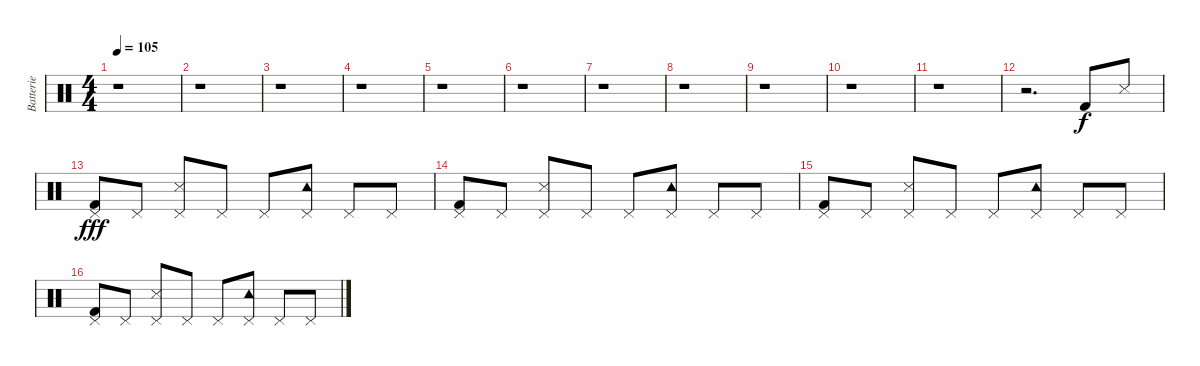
\track ("Batterie" "Batterie") {instrument percussion}
\staff {score}
\articulation defaults
\ts (4 4)
\tempo 105
\clef neutral
\ks c
r.1{dy f} |
r.1 |
r.1 |
r.1 |
r.1 |
r.1 |
r.1 |
r.1 |
r.1 |
r.1 |
r.1 |
r.2{d} "Kick (hit) 2".8 "Snare (side stick) 3".8 |
("Pedal Hi-Hat (hit)" "Kick (hit) 2").8{dy fff} "Pedal Hi-Hat (hit)".8 ("Pedal Hi-Hat (hit)" "Snare (side stick) 3").8 "Pedal Hi-Hat (hit)".8 "Pedal Hi-Hat (hit)".8 ("Pedal Hi-Hat (hit)" "Tambourine (hit)").8 "Pedal Hi-Hat (hit)".8 "Pedal Hi-Hat (hit)".8 |
("Pedal Hi-Hat (hit)" "Kick (hit) 2").8 "Pedal Hi-Hat (hit)".8 ("Pedal Hi-Hat (hit)" "Snare (side stick) 3").8 "Pedal Hi-Hat (hit)".8 "Pedal Hi-Hat (hit)".8 ("Pedal Hi-Hat (hit)" "Tambourine (hit)").8 "Pedal Hi-Hat (hit)".8 "Pedal Hi-Hat (hit)".8 |
("Pedal Hi-Hat (hit)" "Kick (hit) 2").8 "Pedal Hi-Hat (hit)".8 ("Pedal Hi-Hat (hit)" "Snare (side stick) 3").8 "Pedal Hi-Hat (hit)".8 "Pedal Hi-Hat (hit)".8 ("Pedal Hi-Hat (hit)" "Tambourine (hit)").8 "Pedal Hi-Hat (hit)".8 "Pedal Hi-Hat (hit)".8 |
("Pedal Hi-Hat (hit)" "Kick (hit) 2").8 "Pedal Hi-Hat (hit)".8 ("Pedal Hi-Hat (hit)" "Snare (side stick) 3").8 "Pedal Hi-Hat (hit)".8 "Pedal Hi-Hat (hit)".8 ("Pedal Hi-Hat (hit)" "Tambourine (hit)").8 "Pedal Hi-Hat (hit)".8 "Pedal Hi-Hat (hit)".8
